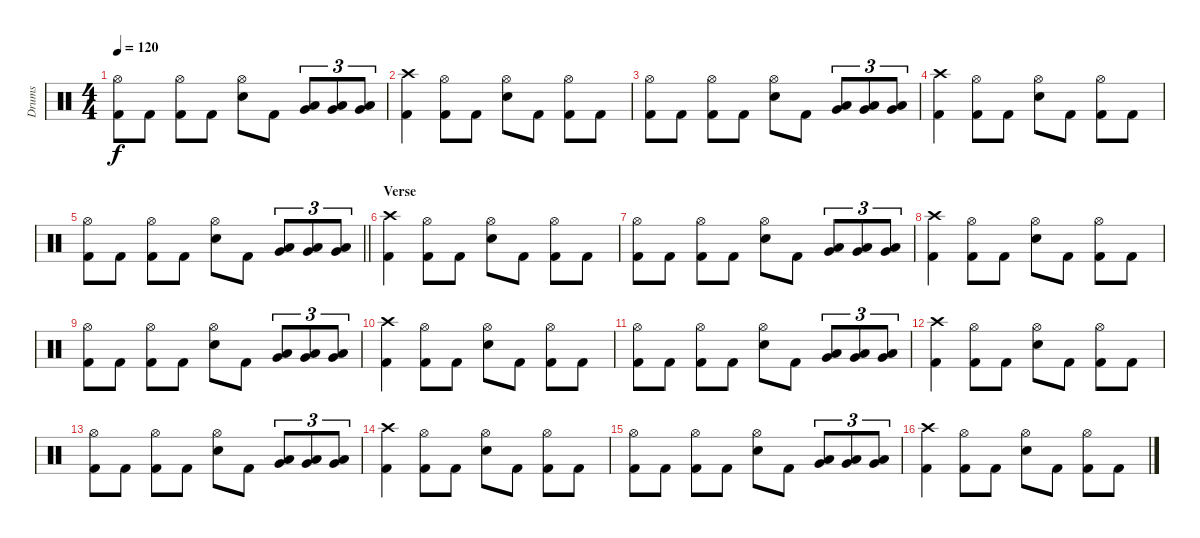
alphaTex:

\track ("Drums" "Drums") {instrument percussion}
\staff {score}
\articulation defaults
\ts (4 4)
\tempo 120
\clef neutral
\ks c
("Hi-Hat (open)" "Kick (hit) 2").8{dy f} "Kick (hit) 2".8 ("Hi-Hat (open)" "Kick (hit) 2").8 "Kick (hit) 2".8 ("Hi-Hat (open)" "Electric Snare (hit)").8 "Kick (hit) 2".8 ("Low Tom (hit)" "Very Low Tom (hit)").8{tu (3 2)} ("Low Tom (hit)" "Very Low Tom (hit)").8{tu (3 2)} ("Low Tom (hit)" "Very Low Tom (hit)").8{tu (3 2)} |
("Crash high (hit)" "Kick (hit) 2").4 ("Hi-Hat (open)" "Kick (hit) 2").8 "Kick (hit) 2".8 ("Hi-Hat (open)" "Electric Snare (hit)").8 "Kick (hit) 2".8 ("Hi-Hat (open)" "Kick (hit) 2").8 "Kick (hit) 2".8 |
("Hi-Hat (open)" "Kick (hit) 2").8 "Kick (hit) 2".8 ("Hi-Hat (open)" "Kick (hit) 2").8 "Kick (hit) 2".8 ("Hi-Hat (open)" "Electric Snare (hit)").8 "Kick (hit) 2".8 ("Low Tom (hit)" "Very Low Tom (hit)").8{tu (3 2)} ("Low Tom (hit)" "Very Low Tom (hit)").8{tu (3 2)} ("Low Tom (hit)" "Very Low Tom (hit)").8{tu (3 2)} |
("Crash high (hit)" "Kick (hit) 2").4 ("Hi-Hat (open)" "Kick (hit) 2").8 "Kick (hit) 2".8 ("Hi-Hat (open)" "Electric Snare (hit)").8 "Kick (hit) 2".8 ("Hi-Hat (open)" "Kick (hit) 2").8 "Kick (hit) 2".8 |
\barLineRight lightlight
("Hi-Hat (open)" "Kick (hit) 2").8 "Kick (hit) 2".8 ("Hi-Hat (open)" "Kick (hit) 2").8 "Kick (hit) 2".8 ("Hi-Hat (open)" "Electric Snare (hit)").8 "Kick (hit) 2".8 ("Low Tom (hit)" "Very Low Tom (hit)").8{tu (3 2)} ("Low Tom (hit)" "Very Low Tom (hit)").8{tu (3 2)} ("Low Tom (hit)" "Very Low Tom (hit)").8{tu (3 2)} |
\section ("" "Verse")
("Crash high (hit)" "Kick (hit) 2").4 ("Hi-Hat (open)" "Kick (hit) 2").8 "Kick (hit) 2".8 ("Hi-Hat (open)" "Electric Snare (hit)").8 "Kick (hit) 2".8 ("Hi-Hat (open)" "Kick (hit) 2").8 "Kick (hit) 2".8 |
("Hi-Hat (open)" "Kick (hit) 2").8 "Kick (hit) 2".8 ("Hi-Hat (open)" "Kick (hit) 2").8 "Kick (hit) 2".8 ("Hi-Hat (open)" "Electric Snare (hit)").8 "Kick (hit) 2".8 ("Low Tom (hit)" "Very Low Tom (hit)").8{tu (3 2)} ("Low Tom (hit)" "Very Low Tom (hit)").8{tu (3 2)} ("Low Tom (hit)" "Very Low Tom (hit)").8{tu (3 2)} |
("Crash high (hit)" "Kick (hit) 2").4 ("Hi-Hat (open)" "Kick (hit) 2").8 "Kick (hit) 2".8 ("Hi-Hat (open)" "Electric Snare (hit)").8 "Kick (hit) 2".8 ("Hi-Hat (open)" "Kick (hit) 2").8 "Kick (hit) 2".8 |
("Hi-Hat (open)" "Kick (hit) 2").8 "Kick (hit) 2".8 ("Hi-Hat (open)" "Kick (hit) 2").8 "Kick (hit) 2".8 ("Hi-Hat (open)" "Electric Snare (hit)").8 "Kick (hit) 2".8 ("Low Tom (hit)" "Very Low Tom (hit)").8{tu (3 2)} ("Low Tom (hit)" "Very Low Tom (hit)").8{tu (3 2)} ("Low Tom (hit)" "Very Low Tom (hit)").8{tu (3 2)} |
("Crash high (hit)" "Kick (hit) 2").4 ("Hi-Hat (open)" "Kick (hit) 2").8 "Kick (hit) 2".8 ("Hi-Hat (open)" "Electric Snare (hit)").8 "Kick (hit) 2".8 ("Hi-Hat (open)" "Kick (hit) 2").8 "Kick (hit) 2".8 |
("Hi-Hat (open)" "Kick (hit) 2").8 "Kick (hit) 2".8 ("Hi-Hat (open)" "Kick (hit) 2").8 "Kick (hit) 2".8 ("Hi-Hat (open)" "Electric Snare (hit)").8 "Kick (hit) 2".8 ("Low Tom (hit)" "Very Low Tom (hit)").8{tu (3 2)} ("Low Tom (hit)" "Very Low Tom (hit)").8{tu (3 2)} ("Low Tom (hit)" "Very Low Tom (hit)").8{tu (3 2)} |
("Crash high (hit)" "Kick (hit) 2").4 ("Hi-Hat (open)" "Kick (hit) 2").8 "Kick (hit) 2".8 ("Hi-Hat (open)" "Electric Snare (hit)").8 "Kick (hit) 2".8 ("Hi-Hat (open)" "Kick (hit) 2").8 "Kick (hit) 2".8 |
("Hi-Hat (open)" "Kick (hit) 2").8 "Kick (hit) 2".8 ("Hi-Hat (open)" "Kick (hit) 2").8 "Kick (hit) 2".8 ("Hi-Hat (open)" "Electric Snare (hit)").8 "Kick (hit) 2".8 ("Low Tom (hit)" "Very Low Tom (hit)").8{tu (3 2)} ("Low Tom (hit)" "Very Low Tom (hit)").8{tu (3 2)} ("Low Tom (hit)" "Very Low Tom (hit)").8{tu (3 2)} |
("Crash high (hit)" "Kick (hit) 2").4 ("Hi-Hat (open)" "Kick (hit) 2").8 "Kick (hit) 2".8 ("Hi-Hat (open)" "Electric Snare (hit)").8 "Kick (hit) 2".8 ("Hi-Hat (open)" "Kick (hit) 2").8 "Kick (hit) 2".8 |
("Hi-Hat (open)" "Kick (hit) 2").8 "Kick (hit) 2".8 ("Hi-Hat (open)" "Kick (hit) 2").8 "Kick (hit) 2".8 ("Hi-Hat (open)" "Electric Snare (hit)").8 "Kick (hit) 2".8 ("Low Tom (hit)" "Very Low Tom (hit)").8{tu (3 2)} ("Low Tom (hit)" "Very Low Tom (hit)").8{tu (3 2)} ("Low Tom (hit)" "Very Low Tom (hit)").8{tu (3 2)} |
("Crash high (hit)" "Kick (hit) 2").4 ("Hi-Hat (open)" "Kick (hit) 2").8 "Kick (hit) 2".8 ("Hi-Hat (open)" "Electric Snare (hit)").8 "Kick (hit) 2".8 ("Hi-Hat (open)" "Kick (hit) 2").8 "Kick (hit) 2".8
